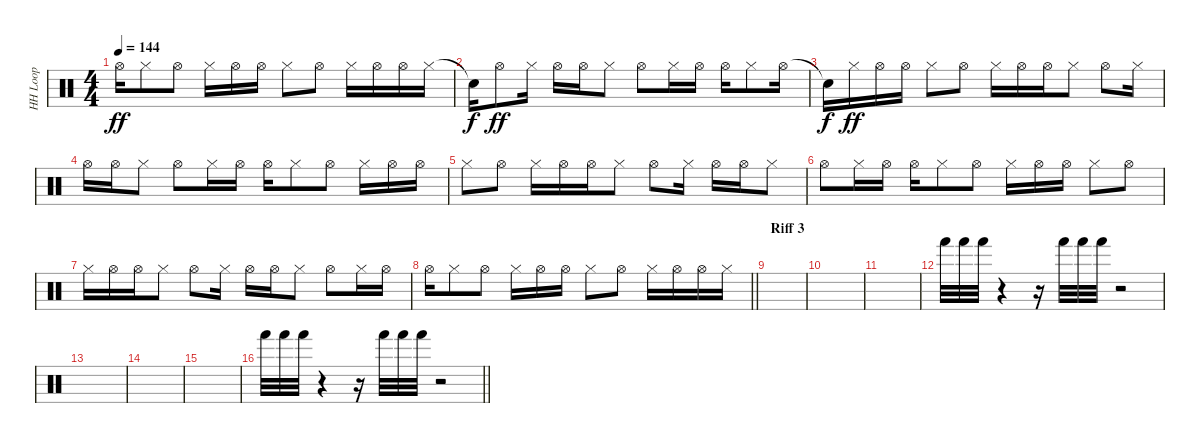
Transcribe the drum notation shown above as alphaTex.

\track ("HH Loop" "HH Loop") {instrument percussion}
\staff {score}
\articulation defaults
\ts (4 4)
\tempo 144
\clef neutral
\ks c "Hi-Hat (open)".16{dy ff} "Hi-Hat (closed)".8 "Hi-Hat (open)".8 "Hi-Hat (closed)".16 "Hi-Hat (open)".16 "Hi-Hat (open)".16 "Hi-Hat (closed)".8 "Hi-Hat (open)".8 "Hi-Hat (closed)".16 "Hi-Hat (open)".16 "Hi-Hat (open)".16 "Hi-Hat (closed)".16
|
"Snare (hit)"{t}.16{dy f} "Hi-Hat (open)".8{dy ff} "Hi-Hat (closed)".16 "Hi-Hat (open)".16 "Hi-Hat (open)".16 "Hi-Hat (closed)".8 "Hi-Hat (open)".8 "Hi-Hat (closed)".16 "Hi-Hat (open)".16 "Hi-Hat (open)".16 "Hi-Hat (closed)".8 "Hi-Hat (open)".16 |
"Snare (hit)"{t}.16{dy f} "Hi-Hat (closed)".16{dy ff} "Hi-Hat (open)".16 "Hi-Hat (open)".16 "Hi-Hat (closed)".8 "Hi-Hat (open)".8 "Hi-Hat (closed)".16 "Hi-Hat (open)".16 "Hi-Hat (open)".16 "Hi-Hat (closed)".8 "Hi-Hat (open)".8 "Hi-Hat (closed)".16 |
"Hi-Hat (open)".16 "Hi-Hat (open)".16 "Hi-Hat (closed)".8 "Hi-Hat (open)".8 "Hi-Hat (closed)".16 "Hi-Hat (open)".16 "Hi-Hat (open)".16 "Hi-Hat (closed)".8 "Hi-Hat (open)".8 "Hi-Hat (closed)".16 "Hi-Hat (open)".16 "Hi-Hat (open)".16 |
"Hi-Hat (closed)".8 "Hi-Hat (open)".8 "Hi-Hat (closed)".16 "Hi-Hat (open)".16 "Hi-Hat (open)".16 "Hi-Hat (closed)".8 "Hi-Hat (open)".8 "Hi-Hat (closed)".16 "Hi-Hat (open)".16 "Hi-Hat (open)".16 "Hi-Hat (closed)".8 |
"Hi-Hat (open)".8 "Hi-Hat (closed)".16 "Hi-Hat (open)".16 "Hi-Hat (open)".16 "Hi-Hat (closed)".8 "Hi-Hat (open)".8 "Hi-Hat (closed)".16 "Hi-Hat (open)".16 "Hi-Hat (open)".16 "Hi-Hat (closed)".8 "Hi-Hat (open)".8 |
"Hi-Hat (closed)".16 "Hi-Hat (open)".16 "Hi-Hat (open)".16 "Hi-Hat (closed)".8 "Hi-Hat (open)".8 "Hi-Hat (closed)".16 "Hi-Hat (open)".16 "Hi-Hat (open)".16 "Hi-Hat (closed)".8 "Hi-Hat (open)".8 "Hi-Hat (closed)".16 "Hi-Hat (open)".16 |
\barLineRight lightlight "Hi-Hat (open)".16 "Hi-Hat (closed)".8 "Hi-Hat (open)".8 "Hi-Hat (closed)".16 "Hi-Hat (open)".16 "Hi-Hat (open)".16 "Hi-Hat (closed)".8 "Hi-Hat (open)".8 "Hi-Hat (closed)".16 "Hi-Hat (open)".16 "Hi-Hat (open)".16 "Hi-Hat (closed)".16
|
\section ("" "Riff 3")
|
|
|
"Hand (hit)".32 "Hand (hit)".32 "Hand (hit)".32 r.4 r.16 "Hand (hit)".32 "Hand (hit)".32 "Hand (hit)".32 r.2 |
|
|
|
\barLineRight lightlight "Hand (hit)".32 "Hand (hit)".32 "Hand (hit)".32
r.4 r.16 "Hand (hit)".32 "Hand (hit)".32 "Hand (hit)".32 r.2
